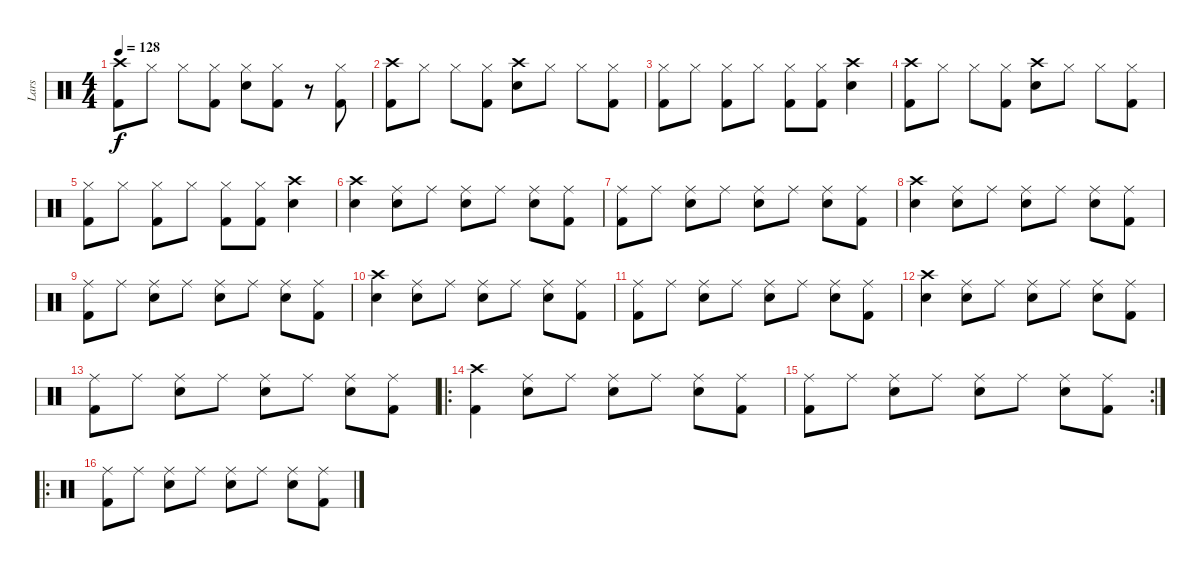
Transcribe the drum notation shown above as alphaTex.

\track ("Lars" "Lars") {instrument percussion}
\staff {score}
\articulation defaults
\ts (4 4)
\tempo 128
\clef neutral
\ks c
("Crash high (hit)" "Kick (hit) 2").8{dy f} "Hi-Hat (closed)".8 "Hi-Hat (closed)".8 ("Hi-Hat (closed)" "Kick (hit) 2").8 ("Hi-Hat (closed)" "Electric Snare (hit)").8 ("Hi-Hat (closed)" "Kick (hit) 2").8 r.8 ("Hi-Hat (closed)" "Kick (hit) 2").8 |
("Crash high (hit)" "Kick (hit) 2").8 "Hi-Hat (closed)".8 "Hi-Hat (closed)".8 ("Hi-Hat (closed)" "Kick (hit) 2").8 ("Crash high (hit)" "Electric Snare (hit)").8 "Hi-Hat (closed)".8 "Hi-Hat (closed)".8 ("Hi-Hat (closed)" "Kick (hit) 2").8 |
("Hi-Hat (closed)" "Kick (hit) 2").8 "Hi-Hat (closed)".8 ("Hi-Hat (closed)" "Kick (hit) 2").8 "Hi-Hat (closed)".8 ("Hi-Hat (closed)" "Kick (hit) 2").8 ("Hi-Hat (closed)" "Kick (hit) 2").8 ("Crash high (hit)" "Electric Snare (hit)").4 |
("Crash high (hit)" "Kick (hit) 2").8 "Hi-Hat (closed)".8 "Hi-Hat (closed)".8 ("Hi-Hat (closed)" "Kick (hit) 2").8 ("Crash high (hit)" "Electric Snare (hit)").8 "Hi-Hat (closed)".8 "Hi-Hat (closed)".8 ("Hi-Hat (closed)" "Kick (hit) 2").8 |
("Hi-Hat (closed)" "Kick (hit) 2").8 "Hi-Hat (closed)".8 ("Hi-Hat (closed)" "Kick (hit) 2").8 "Hi-Hat (closed)".8 ("Hi-Hat (closed)" "Kick (hit) 2").8 ("Hi-Hat (closed)" "Kick (hit) 2").8 ("Crash high (hit)" "Electric Snare (hit)").4 |
("Crash high (hit)" "Electric Snare (hit)").4 ("Ride (middle)" "Electric Snare (hit)").8 "Ride (middle)".8 ("Ride (middle)" "Electric Snare (hit)").8 "Ride (middle)".8 ("Ride (middle)" "Electric Snare (hit)").8 ("Ride (middle)" "Kick (hit) 2").8 |
("Ride (middle)" "Kick (hit) 2").8 "Ride (middle)".8 ("Ride (middle)" "Electric Snare (hit)").8 "Ride (middle)".8 ("Ride (middle)" "Electric Snare (hit)").8 "Ride (middle)".8 ("Ride (middle)" "Electric Snare (hit)").8 ("Ride (middle)" "Kick (hit) 2").8 |
("Crash high (hit)" "Electric Snare (hit)").4 ("Ride (middle)" "Electric Snare (hit)").8 "Ride (middle)".8 ("Ride (middle)" "Electric Snare (hit)").8 "Ride (middle)".8 ("Ride (middle)" "Electric Snare (hit)").8 ("Ride (middle)" "Kick (hit) 2").8 |
("Ride (middle)" "Kick (hit) 2").8 "Ride (middle)".8 ("Ride (middle)" "Electric Snare (hit)").8 "Ride (middle)".8 ("Ride (middle)" "Electric Snare (hit)").8 "Ride (middle)".8 ("Ride (middle)" "Electric Snare (hit)").8 ("Ride (middle)" "Kick (hit) 2").8 |
("Crash high (hit)" "Electric Snare (hit)").4 ("Ride (middle)" "Electric Snare (hit)").8 "Ride (middle)".8 ("Ride (middle)" "Electric Snare (hit)").8 "Ride (middle)".8 ("Ride (middle)" "Electric Snare (hit)").8 ("Ride (middle)" "Kick (hit) 2").8 |
("Ride (middle)" "Kick (hit) 2").8 "Ride (middle)".8 ("Ride (middle)" "Electric Snare (hit)").8 "Ride (middle)".8 ("Ride (middle)" "Electric Snare (hit)").8 "Ride (middle)".8 ("Ride (middle)" "Electric Snare (hit)").8 ("Ride (middle)" "Kick (hit) 2").8 |
("Crash high (hit)" "Electric Snare (hit)").4 ("Ride (middle)" "Electric Snare (hit)").8 "Ride (middle)".8 ("Ride (middle)" "Electric Snare (hit)").8 "Ride (middle)".8 ("Ride (middle)" "Electric Snare (hit)").8 ("Ride (middle)" "Kick (hit) 2").8 |
("Ride (middle)" "Kick (hit) 2").8 "Ride (middle)".8 ("Ride (middle)" "Electric Snare (hit)").8 "Ride (middle)".8 ("Ride (middle)" "Electric Snare (hit)").8 "Ride (middle)".8 ("Ride (middle)" "Electric Snare (hit)").8 ("Ride (middle)" "Kick (hit) 2").8 |
\ro
("Crash high (hit)" "Kick (hit) 2").4 ("Ride (middle)" "Electric Snare (hit)").8 "Ride (middle)".8 ("Ride (middle)" "Electric Snare (hit)").8 "Ride (middle)".8 ("Ride (middle)" "Electric Snare (hit)").8 ("Ride (middle)" "Kick (hit) 2").8 |
\rc 2
("Ride (middle)" "Kick (hit) 2").8 "Ride (middle)".8 ("Ride (middle)" "Electric Snare (hit)").8 "Ride (middle)".8 ("Ride (middle)" "Electric Snare (hit)").8 "Ride (middle)".8 ("Ride (middle)" "Electric Snare (hit)").8 ("Ride (middle)" "Kick (hit) 2").8 |
\ro
("Ride (middle)" "Kick (hit) 2").8 "Ride (middle)".8 ("Ride (middle)" "Electric Snare (hit)").8 "Ride (middle)".8 ("Ride (middle)" "Electric Snare (hit)").8 "Ride (middle)".8 ("Ride (middle)" "Electric Snare (hit)").8 ("Ride (middle)" "Kick (hit) 2").8
